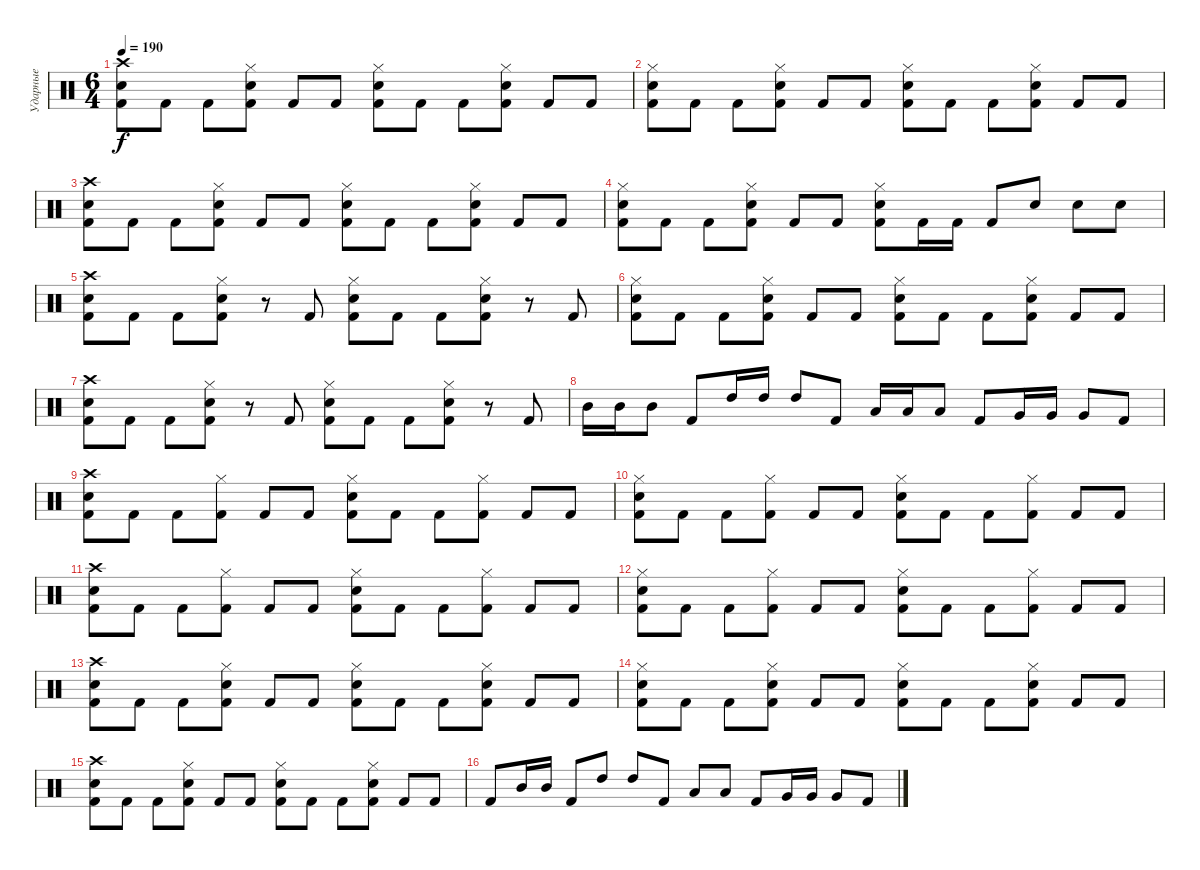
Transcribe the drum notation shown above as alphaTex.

\track ("Ударные" "Ударные") {instrument percussion}
\staff {score}
\articulation defaults
\ts (6 4)
\tempo 190
\clef neutral
\ks c
("Crash high (hit)" "Electric Snare (hit)" "Kick (hit) 2").8{dy f} "Kick (hit) 2".8 "Kick (hit) 2".8 ("Hi-Hat (closed)" "Electric Snare (hit)" "Kick (hit) 2").8 "Kick (hit) 2".8 "Kick (hit) 2".8 ("Hi-Hat (closed)" "Electric Snare (hit)" "Kick (hit) 2").8 "Kick (hit) 2".8 "Kick (hit) 2".8 ("Hi-Hat (closed)" "Electric Snare (hit)" "Kick (hit) 2").8 "Kick (hit) 2".8 "Kick (hit) 2".8 |
("Hi-Hat (closed)" "Electric Snare (hit)" "Kick (hit) 2").8 "Kick (hit) 2".8 "Kick (hit) 2".8 ("Hi-Hat (closed)" "Electric Snare (hit)" "Kick (hit) 2").8 "Kick (hit) 2".8 "Kick (hit) 2".8 ("Hi-Hat (closed)" "Electric Snare (hit)" "Kick (hit) 2").8 "Kick (hit) 2".8 "Kick (hit) 2".8 ("Hi-Hat (closed)" "Electric Snare (hit)" "Kick (hit) 2").8 "Kick (hit) 2".8 "Kick (hit) 2".8 |
("Crash high (hit)" "Electric Snare (hit)" "Kick (hit) 2").8 "Kick (hit) 2".8 "Kick (hit) 2".8 ("Hi-Hat (closed)" "Electric Snare (hit)" "Kick (hit) 2").8 "Kick (hit) 2".8 "Kick (hit) 2".8 ("Hi-Hat (closed)" "Electric Snare (hit)" "Kick (hit) 2").8 "Kick (hit) 2".8 "Kick (hit) 2".8 ("Hi-Hat (closed)" "Electric Snare (hit)" "Kick (hit) 2").8 "Kick (hit) 2".8 "Kick (hit) 2".8 |
("Hi-Hat (closed)" "Electric Snare (hit)" "Kick (hit) 2").8 "Kick (hit) 2".8 "Kick (hit) 2".8 ("Hi-Hat (closed)" "Electric Snare (hit)" "Kick (hit) 2").8 "Kick (hit) 2".8 "Kick (hit) 2".8 ("Hi-Hat (closed)" "Electric Snare (hit)" "Kick (hit) 2").8 "Kick (hit) 2".16 "Kick (hit) 2".16 "Kick (hit) 2".8 "Electric Snare (hit)".8 "Electric Snare (hit)".8 "Electric Snare (hit)".8 |
("Crash high (hit)" "Electric Snare (hit)" "Kick (hit) 2").8 "Kick (hit) 2".8 "Kick (hit) 2".8 ("Hi-Hat (closed)" "Electric Snare (hit)" "Kick (hit) 2").8 r.8 "Kick (hit) 2".8 ("Hi-Hat (closed)" "Electric Snare (hit)" "Kick (hit) 2").8 "Kick (hit) 2".8 "Kick (hit) 2".8 ("Hi-Hat (closed)" "Electric Snare (hit)" "Kick (hit) 2").8 r.8 "Kick (hit) 2".8 |
("Hi-Hat (closed)" "Electric Snare (hit)" "Kick (hit) 2").8 "Kick (hit) 2".8 "Kick (hit) 2".8 ("Hi-Hat (closed)" "Electric Snare (hit)" "Kick (hit) 2").8 "Kick (hit) 2".8 "Kick (hit) 2".8 ("Hi-Hat (closed)" "Electric Snare (hit)" "Kick (hit) 2").8 "Kick (hit) 2".8 "Kick (hit) 2".8 ("Hi-Hat (closed)" "Electric Snare (hit)" "Kick (hit) 2").8 "Kick (hit) 2".8 "Kick (hit) 2".8 |
("Crash high (hit)" "Electric Snare (hit)" "Kick (hit) 2").8 "Kick (hit) 2".8 "Kick (hit) 2".8 ("Hi-Hat (closed)" "Electric Snare (hit)" "Kick (hit) 2").8 r.8 "Kick (hit) 2".8 ("Hi-Hat (closed)" "Electric Snare (hit)" "Kick (hit) 2").8 "Kick (hit) 2".8 "Kick (hit) 2".8 ("Hi-Hat (closed)" "Electric Snare (hit)" "Kick (hit) 2").8 r.8 "Kick (hit) 2".8 |
"Mid Tom (hit)".16 "Mid Tom (hit)".16 "Mid Tom (hit)".8 "Kick (hit) 2".8 "High Tom (hit)".16 "High Tom (hit)".16 "High Tom (hit)".8 "Kick (hit) 2".8 "Low Tom (hit)".16 "Low Tom (hit)".16 "Low Tom (hit)".8 "Kick (hit) 2".8 "Very Low Tom (hit)".16 "Very Low Tom (hit)".16 "Very Low Tom (hit)".8 "Kick (hit) 2".8 |
("Crash high (hit)" "Electric Snare (hit)" "Kick (hit) 2").8 "Kick (hit) 2".8 "Kick (hit) 2".8 ("Hi-Hat (closed)" "Kick (hit) 2").8 "Kick (hit) 2".8 "Kick (hit) 2".8 ("Hi-Hat (closed)" "Electric Snare (hit)" "Kick (hit) 2").8 "Kick (hit) 2".8 "Kick (hit) 2".8 ("Hi-Hat (closed)" "Kick (hit) 2").8 "Kick (hit) 2".8 "Kick (hit) 2".8 |
("Hi-Hat (closed)" "Electric Snare (hit)" "Kick (hit) 2").8 "Kick (hit) 2".8 "Kick (hit) 2".8 ("Hi-Hat (closed)" "Kick (hit) 2").8 "Kick (hit) 2".8 "Kick (hit) 2".8 ("Hi-Hat (closed)" "Electric Snare (hit)" "Kick (hit) 2").8 "Kick (hit) 2".8 "Kick (hit) 2".8 ("Hi-Hat (closed)" "Kick (hit) 2").8 "Kick (hit) 2".8 "Kick (hit) 2".8 |
("Crash high (hit)" "Electric Snare (hit)" "Kick (hit) 2").8 "Kick (hit) 2".8 "Kick (hit) 2".8 ("Hi-Hat (closed)" "Kick (hit) 2").8 "Kick (hit) 2".8 "Kick (hit) 2".8 ("Hi-Hat (closed)" "Electric Snare (hit)" "Kick (hit) 2").8 "Kick (hit) 2".8 "Kick (hit) 2".8 ("Hi-Hat (closed)" "Kick (hit) 2").8 "Kick (hit) 2".8 "Kick (hit) 2".8 |
("Hi-Hat (closed)" "Electric Snare (hit)" "Kick (hit) 2").8 "Kick (hit) 2".8 "Kick (hit) 2".8 ("Hi-Hat (closed)" "Kick (hit) 2").8 "Kick (hit) 2".8 "Kick (hit) 2".8 ("Hi-Hat (closed)" "Electric Snare (hit)" "Kick (hit) 2").8 "Kick (hit) 2".8 "Kick (hit) 2".8 ("Hi-Hat (closed)" "Kick (hit) 2").8 "Kick (hit) 2".8 "Kick (hit) 2".8 |
("Crash high (hit)" "Electric Snare (hit)" "Kick (hit) 2").8 "Kick (hit) 2".8 "Kick (hit) 2".8 ("Hi-Hat (closed)" "Electric Snare (hit)" "Kick (hit) 2").8 "Kick (hit) 2".8 "Kick (hit) 2".8 ("Hi-Hat (closed)" "Electric Snare (hit)" "Kick (hit) 2").8 "Kick (hit) 2".8 "Kick (hit) 2".8 ("Hi-Hat (closed)" "Electric Snare (hit)" "Kick (hit) 2").8 "Kick (hit) 2".8 "Kick (hit) 2".8 |
("Hi-Hat (closed)" "Electric Snare (hit)" "Kick (hit) 2").8 "Kick (hit) 2".8 "Kick (hit) 2".8 ("Hi-Hat (closed)" "Electric Snare (hit)" "Kick (hit) 2").8 "Kick (hit) 2".8 "Kick (hit) 2".8 ("Hi-Hat (closed)" "Electric Snare (hit)" "Kick (hit) 2").8 "Kick (hit) 2".8 "Kick (hit) 2".8 ("Hi-Hat (closed)" "Electric Snare (hit)" "Kick (hit) 2").8 "Kick (hit) 2".8 "Kick (hit) 2".8 |
("Crash high (hit)" "Electric Snare (hit)" "Kick (hit) 2").8 "Kick (hit) 2".8 "Kick (hit) 2".8 ("Hi-Hat (closed)" "Electric Snare (hit)" "Kick (hit) 2").8 "Kick (hit) 2".8 "Kick (hit) 2".8 ("Hi-Hat (closed)" "Electric Snare (hit)" "Kick (hit) 2").8 "Kick (hit) 2".8 "Kick (hit) 2".8 ("Hi-Hat (closed)" "Electric Snare (hit)" "Kick (hit) 2").8 "Kick (hit) 2".8 "Kick (hit) 2".8 |
"Kick (hit) 2".8 "Mid Tom (hit)".16 "Mid Tom (hit)".16 "Kick (hit) 2".8 "High Tom (hit)".8 "High Tom (hit)".8 "Kick (hit) 2".8 "Low Tom (hit)".8 "Low Tom (hit)".8 "Kick (hit) 2".8 "Very Low Tom (hit)".16 "Very Low Tom (hit)".16 "Very Low Tom (hit)".8 "Kick (hit) 2".8
